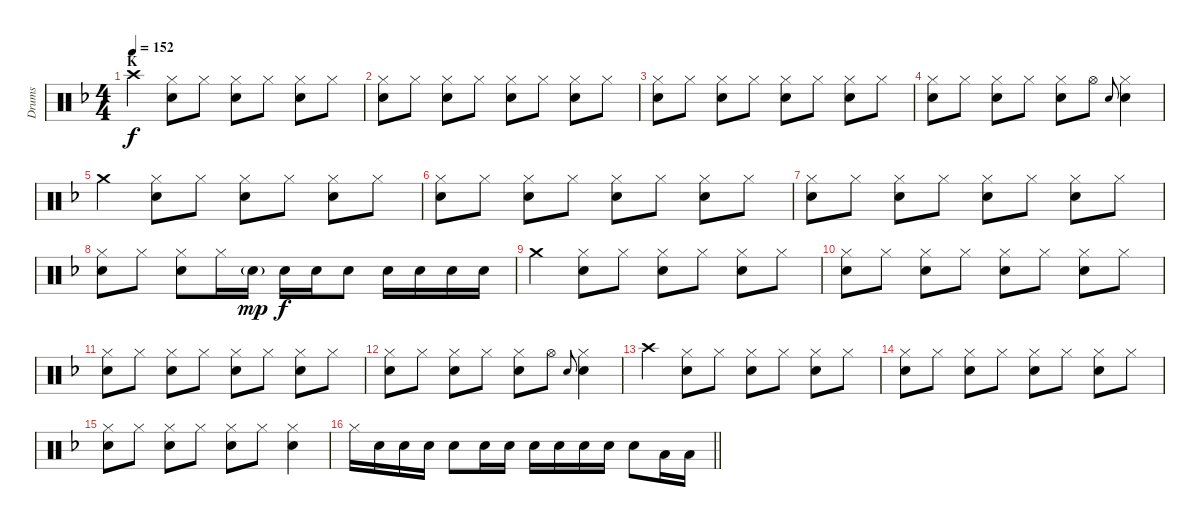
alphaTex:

\track ("Drums" "Drums") {instrument percussion}
\staff {score}
\articulation defaults
\ts (4 4)
\section ("" "K")
\tempo 152
\clef neutral
\ks f "Crash high (hit)".4{dy f}
("Hi-Hat (closed)" "Snare (hit) 2").8 "Hi-Hat (closed)".8 ("Hi-Hat (closed)" "Snare (hit) 2").8 "Hi-Hat (closed)".8 ("Hi-Hat (closed)" "Snare (hit) 2").8 "Hi-Hat (closed)".8 |
("Hi-Hat (closed)" "Snare (hit) 2").8 "Hi-Hat (closed)".8 ("Hi-Hat (closed)" "Snare (hit) 2").8 "Hi-Hat (closed)".8 ("Hi-Hat (closed)" "Snare (hit) 2").8 "Hi-Hat (closed)".8 ("Hi-Hat (closed)" "Snare (hit) 2").8 "Hi-Hat (closed)".8 |
("Hi-Hat (closed)" "Snare (hit) 2").8 "Hi-Hat (closed)".8 ("Hi-Hat (closed)" "Snare (hit) 2").8 "Hi-Hat (closed)".8 ("Hi-Hat (closed)" "Snare (hit) 2").8 "Hi-Hat (closed)".8 ("Hi-Hat (closed)" "Snare (hit) 2").8 "Hi-Hat (closed)".8 |
("Hi-Hat (closed)" "Snare (hit) 2").8 "Hi-Hat (closed)".8 ("Hi-Hat (closed)" "Snare (hit) 2").8 "Hi-Hat (closed)".8 ("Hi-Hat (closed)" "Snare (hit) 2").8 "Hi-Hat (open)".8 "Snare (hit) 2".8{gr onbeat} ("Hi-Hat (closed)" "Snare (hit) 2").4 |
"Crash medium (hit)".4 ("Hi-Hat (closed)" "Snare (hit) 2").8 "Hi-Hat (closed)".8 ("Hi-Hat (closed)" "Snare (hit) 2").8 "Hi-Hat (closed)".8 ("Hi-Hat (closed)" "Snare (hit) 2").8 "Hi-Hat (closed)".8 |
("Hi-Hat (closed)" "Snare (hit) 2").8 "Hi-Hat (closed)".8 ("Hi-Hat (closed)" "Snare (hit) 2").8 "Hi-Hat (closed)".8 ("Hi-Hat (closed)" "Snare (hit) 2").8 "Hi-Hat (closed)".8 ("Hi-Hat (closed)" "Snare (hit) 2").8 "Hi-Hat (closed)".8 |
("Hi-Hat (closed)" "Snare (hit) 2").8 "Hi-Hat (closed)".8 ("Hi-Hat (closed)" "Snare (hit) 2").8 "Hi-Hat (closed)".8 ("Hi-Hat (closed)" "Snare (hit) 2").8 "Hi-Hat (closed)".8 ("Hi-Hat (closed)" "Snare (hit) 2").8 "Hi-Hat (closed)".8 |
("Hi-Hat (closed)" "Snare (hit) 2").8 "Hi-Hat (closed)".8 ("Hi-Hat (closed)" "Snare (hit) 2").8 "Hi-Hat (closed)".16 "Snare (hit) 2"{g}.16{dy mp} "Snare (hit) 2".16{dy f} "Snare (hit) 2".16 "Snare (hit) 2".8 "Snare (hit) 2".16 "Snare (hit) 2".16 "Snare (hit) 2".16 "Snare (hit) 2".16 |
"Crash medium (hit)".4 ("Hi-Hat (closed)" "Snare (hit) 2").8 "Hi-Hat (closed)".8 ("Hi-Hat (closed)" "Snare (hit) 2").8 "Hi-Hat (closed)".8 ("Hi-Hat (closed)" "Snare (hit) 2").8 "Hi-Hat (closed)".8 |
("Hi-Hat (closed)" "Snare (hit) 2").8 "Hi-Hat (closed)".8 ("Hi-Hat (closed)" "Snare (hit) 2").8 "Hi-Hat (closed)".8 ("Hi-Hat (closed)" "Snare (hit) 2").8 "Hi-Hat (closed)".8 ("Hi-Hat (closed)" "Snare (hit) 2").8 "Hi-Hat (closed)".8 |
("Hi-Hat (closed)" "Snare (hit) 2").8 "Hi-Hat (closed)".8 ("Hi-Hat (closed)" "Snare (hit) 2").8 "Hi-Hat (closed)".8 ("Hi-Hat (closed)" "Snare (hit) 2").8 "Hi-Hat (closed)".8 ("Hi-Hat (closed)" "Snare (hit) 2").8 "Hi-Hat (closed)".8 |
("Hi-Hat (closed)" "Snare (hit) 2").8 "Hi-Hat (closed)".8 ("Hi-Hat (closed)" "Snare (hit) 2").8 "Hi-Hat (closed)".8 ("Hi-Hat (closed)" "Snare (hit) 2").8 "Hi-Hat (open)".8 "Snare (hit) 2".8{gr onbeat} ("Hi-Hat (closed)" "Snare (hit) 2").4 |
"Crash high (hit)".4 ("Hi-Hat (closed)" "Snare (hit) 2").8 "Hi-Hat (closed)".8 ("Hi-Hat (closed)" "Snare (hit) 2").8 "Hi-Hat (closed)".8 ("Hi-Hat (closed)" "Snare (hit) 2").8 "Hi-Hat (closed)".8 |
("Hi-Hat (closed)" "Snare (hit) 2").8 "Hi-Hat (closed)".8 ("Hi-Hat (closed)" "Snare (hit) 2").8 "Hi-Hat (closed)".8 ("Hi-Hat (closed)" "Snare (hit) 2").8 "Hi-Hat (closed)".8 ("Hi-Hat (closed)" "Snare (hit) 2").8 "Hi-Hat (closed)".8 |
("Hi-Hat (closed)" "Snare (hit) 2").8 "Hi-Hat (closed)".8 ("Hi-Hat (closed)" "Snare (hit) 2").8 "Hi-Hat (closed)".8 ("Hi-Hat (closed)" "Snare (hit) 2").8 "Hi-Hat (closed)".8 ("Hi-Hat (closed)" "Snare (hit) 2").4 |
\barLineRight lightlight "Hi-Hat (closed)".16 "Snare (hit) 2".16 "Snare (hit) 2".16 "Snare (hit) 2".16 "Snare (hit) 2".8 "Snare (hit) 2".16 "Snare (hit) 2".16 "Snare (hit) 2".16 "Snare (hit) 2".16 "Snare (hit) 2".16 "Snare (hit) 2".16 "Snare (hit) 2".8 "Low Tom (hit)".16 "Low Tom (hit)".16
